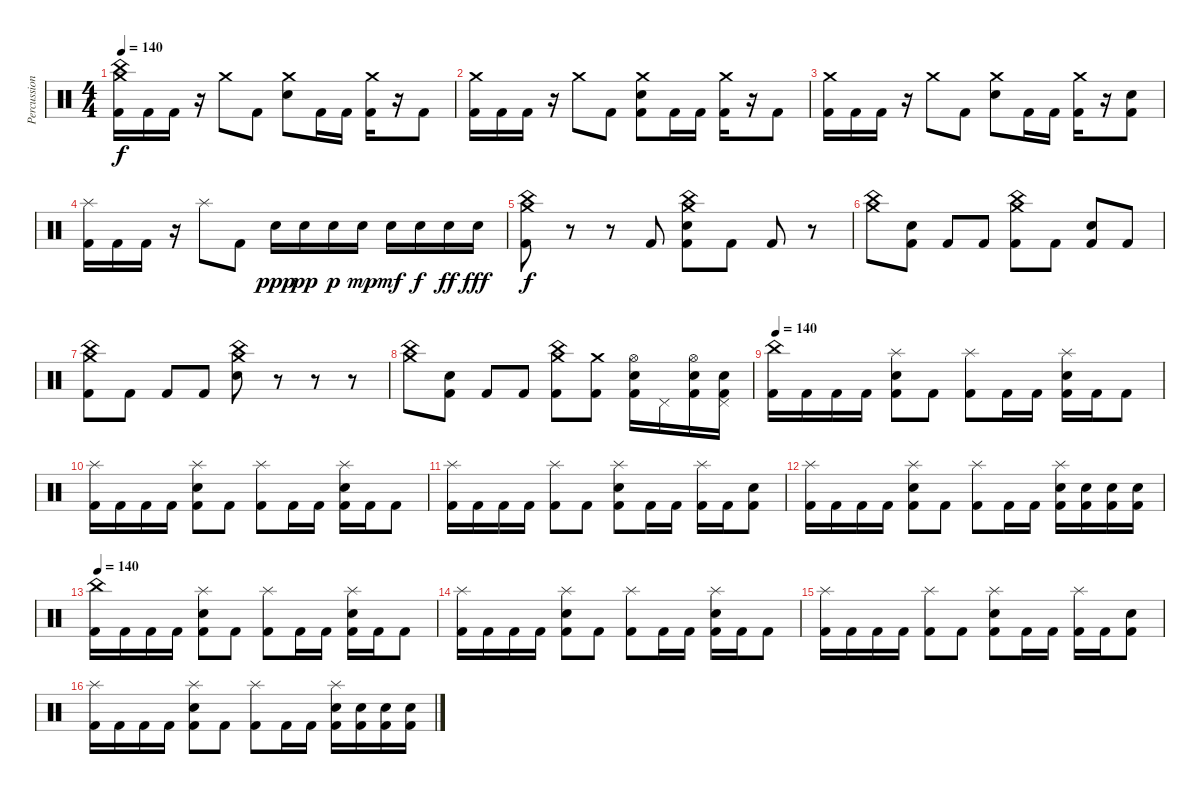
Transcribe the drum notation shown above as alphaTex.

\track ("Percussion" "Percussion") {instrument percussion}
\staff {score}
\articulation defaults
\ts (4 4)
\tempo 140
\clef neutral
\ks c
("China (hit)" "Crash medium (hit)" "Kick (hit) 2").16{dy f} "Kick (hit) 2".16 "Kick (hit) 2".16 r.16 "Crash medium (hit)".8 "Kick (hit) 2".8 ("Crash medium (hit)" "Snare (hit) 2").8 "Kick (hit) 2".16 "Kick (hit) 2".16 ("Crash medium (hit)" "Kick (hit) 2").16 r.16 "Kick (hit) 2".8 |
("Crash medium (hit)" "Kick (hit) 2").16 "Kick (hit) 2".16 "Kick (hit) 2".16 r.16 "Crash medium (hit)".8 "Kick (hit) 2".8 ("Crash medium (hit)" "Snare (hit) 2" "Kick (hit) 2").8 "Kick (hit) 2".16 "Kick (hit) 2".16 ("Crash medium (hit)" "Kick (hit) 2").16 r.16 "Kick (hit) 2".8 |
("Crash medium (hit)" "Kick (hit) 2").16 "Kick (hit) 2".16 "Kick (hit) 2".16 r.16 "Crash medium (hit)".8 "Kick (hit) 2".8 ("Crash medium (hit)" "Snare (hit) 2").8 "Kick (hit) 2".16 "Kick (hit) 2".16 ("Crash medium (hit)" "Kick (hit) 2").16 r.16 ("Snare (hit) 2" "Kick (hit) 2").8 |
("Splash (hit)" "Kick (hit) 2").16 "Kick (hit) 2".16 "Kick (hit) 2".16 r.16 "Splash (hit)".8 "Kick (hit) 2".8 "Electric Snare (hit)".16{dy ppp} "Electric Snare (hit)".16{dy pp} "Electric Snare (hit)".16{dy p} "Electric Snare (hit)".16{dy mp} "Electric Snare (hit)".16{dy mf} "Electric Snare (hit)".16{dy f} "Electric Snare (hit)".16{dy ff} "Electric Snare (hit)".16{dy fff} |
("China (hit)" "Crash medium (hit)" "Kick (hit) 2").8{dy f} r.8 r.8 "Kick (hit) 2".8 ("China (hit)" "Crash medium (hit)" "Snare (hit) 2" "Kick (hit) 2").8 "Kick (hit) 2".8 "Kick (hit) 2".8 r.8 |
("China (hit)" "Crash medium (hit)").8 ("Snare (hit) 2" "Kick (hit) 2").8 "Kick (hit) 2".8 "Kick (hit) 2".8 ("China (hit)" "Crash medium (hit)" "Kick (hit) 2").8 "Kick (hit) 2".8 ("Snare (hit) 2" "Kick (hit) 2").8 "Kick (hit) 2".8 |
("China (hit)" "Crash medium (hit)" "Kick (hit) 2").8 "Kick (hit) 2".8 "Kick (hit) 2".8 "Kick (hit) 2".8 ("China (hit)" "Crash medium (hit)" "Snare (hit) 2").8 r.8 r.8 r.8 |
("China (hit)" "Crash medium (hit)").8 ("Snare (hit) 2" "Kick (hit) 2").8 "Kick (hit) 2".8 "Kick (hit) 2".8 ("China (hit)" "Crash medium (hit)" "Kick (hit) 2").8 ("Crash medium (hit)" "Kick (hit) 2").8 ("Hi-Hat (open)" "Snare (hit) 2" "Kick (hit) 2").16 "Pedal Hi-Hat (hit)".16 ("Hi-Hat (open)" "Snare (hit) 2" "Kick (hit) 2").16 ("Pedal Hi-Hat (hit)" "Snare (hit) 2" "Kick (hit) 2").16 |
\tempo 140
("China (hit)" "Kick (hit) 2").16 "Kick (hit) 2".16 "Kick (hit) 2".16 "Kick (hit) 2".16 ("Splash (hit)" "Snare (hit) 2" "Kick (hit) 2").8 "Kick (hit) 2".8 ("Splash (hit)" "Kick (hit) 2").8 "Kick (hit) 2".16 "Kick (hit) 2".16 ("Splash (hit)" "Snare (hit) 2" "Kick (hit) 2").16 "Kick (hit) 2".16 "Kick (hit) 2".8 |
("Splash (hit)" "Kick (hit) 2").16 "Kick (hit) 2".16 "Kick (hit) 2".16 "Kick (hit) 2".16 ("Splash (hit)" "Snare (hit) 2" "Kick (hit) 2").8 "Kick (hit) 2".8 ("Splash (hit)" "Kick (hit) 2").8 "Kick (hit) 2".16 "Kick (hit) 2".16 ("Splash (hit)" "Snare (hit) 2" "Kick (hit) 2").16 "Kick (hit) 2".16 "Kick (hit) 2".8 |
("Splash (hit)" "Kick (hit) 2").16 "Kick (hit) 2".16 "Kick (hit) 2".16 "Kick (hit) 2".16 ("Splash (hit)" "Kick (hit) 2").8 "Kick (hit) 2".8 ("Splash (hit)" "Snare (hit) 2" "Kick (hit) 2").8 "Kick (hit) 2".16 "Kick (hit) 2".16 ("Splash (hit)" "Kick (hit) 2").16 "Kick (hit) 2".16 ("Snare (hit) 2" "Kick (hit) 2").8 |
("Splash (hit)" "Kick (hit) 2").16 "Kick (hit) 2".16 "Kick (hit) 2".16 "Kick (hit) 2".16 ("Splash (hit)" "Snare (hit) 2" "Kick (hit) 2").8 "Kick (hit) 2".8 ("Splash (hit)" "Kick (hit) 2").8 "Kick (hit) 2".16 "Kick (hit) 2".16 ("Splash (hit)" "Snare (hit) 2" "Kick (hit) 2").16 ("Snare (hit) 2" "Kick (hit) 2").16 ("Snare (hit) 2" "Kick (hit) 2").16 ("Snare (hit) 2" "Kick (hit) 2").16 |
\tempo 140
("China (hit)" "Kick (hit) 2").16 "Kick (hit) 2".16 "Kick (hit) 2".16 "Kick (hit) 2".16 ("Splash (hit)" "Snare (hit) 2" "Kick (hit) 2").8 "Kick (hit) 2".8 ("Splash (hit)" "Kick (hit) 2").8 "Kick (hit) 2".16 "Kick (hit) 2".16 ("Splash (hit)" "Snare (hit) 2" "Kick (hit) 2").16 "Kick (hit) 2".16 "Kick (hit) 2".8 |
("Splash (hit)" "Kick (hit) 2").16 "Kick (hit) 2".16 "Kick (hit) 2".16 "Kick (hit) 2".16 ("Splash (hit)" "Snare (hit) 2" "Kick (hit) 2").8 "Kick (hit) 2".8 ("Splash (hit)" "Kick (hit) 2").8 "Kick (hit) 2".16 "Kick (hit) 2".16 ("Splash (hit)" "Snare (hit) 2" "Kick (hit) 2").16 "Kick (hit) 2".16 "Kick (hit) 2".8 |
("Splash (hit)" "Kick (hit) 2").16 "Kick (hit) 2".16 "Kick (hit) 2".16 "Kick (hit) 2".16 ("Splash (hit)" "Kick (hit) 2").8 "Kick (hit) 2".8 ("Splash (hit)" "Snare (hit) 2" "Kick (hit) 2").8 "Kick (hit) 2".16 "Kick (hit) 2".16 ("Splash (hit)" "Kick (hit) 2").16 "Kick (hit) 2".16 ("Snare (hit) 2" "Kick (hit) 2").8 |
("Splash (hit)" "Kick (hit) 2").16 "Kick (hit) 2".16 "Kick (hit) 2".16 "Kick (hit) 2".16 ("Splash (hit)" "Snare (hit) 2" "Kick (hit) 2").8 "Kick (hit) 2".8 ("Splash (hit)" "Kick (hit) 2").8 "Kick (hit) 2".16 "Kick (hit) 2".16 ("Splash (hit)" "Snare (hit) 2" "Kick (hit) 2").16 ("Snare (hit) 2" "Kick (hit) 2").16 ("Snare (hit) 2" "Kick (hit) 2").16 ("Snare (hit) 2" "Kick (hit) 2").16
